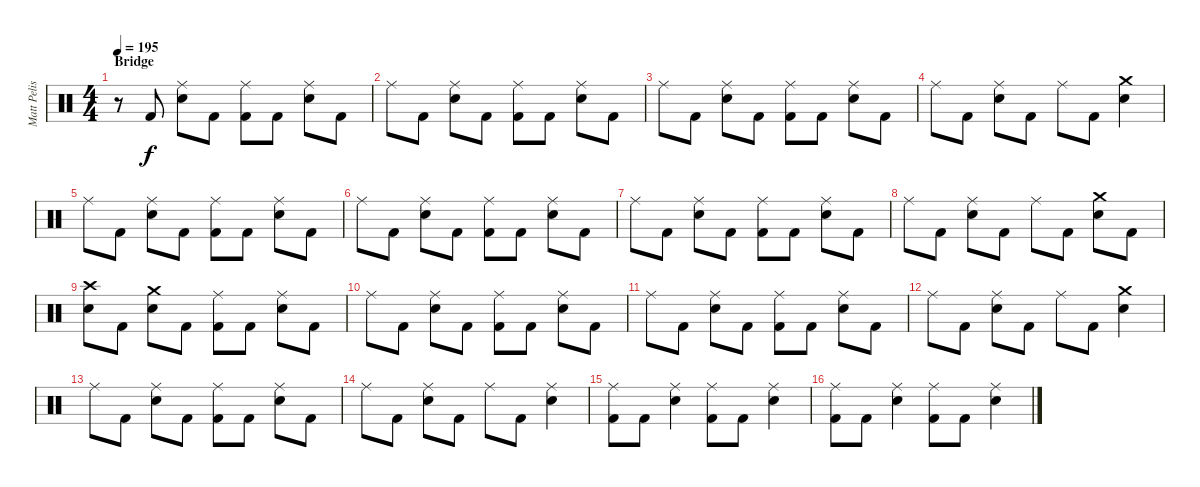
\track ("Matt Pelissier" "Matt Pelis") {instrument percussion}
\staff {score}
\articulation defaults
\ts (4 4)
\section ("" "Bridge")
\tempo 195
\clef neutral
\ks c
r.8{dy f} "Kick (hit) 2".8 ("Ride (middle)" "Electric Snare (hit)").8 "Kick (hit) 2".8 ("Ride (middle)" "Kick (hit) 2").8 "Kick (hit) 2".8 ("Ride (middle)" "Electric Snare (hit)").8 "Kick (hit) 2".8 |
"Ride (middle)".8 "Kick (hit) 2".8 ("Ride (middle)" "Electric Snare (hit)").8 "Kick (hit) 2".8 ("Ride (middle)" "Kick (hit) 2").8 "Kick (hit) 2".8 ("Ride (middle)" "Electric Snare (hit)").8 "Kick (hit) 2".8 |
"Ride (middle)".8 "Kick (hit) 2".8 ("Ride (middle)" "Electric Snare (hit)").8 "Kick (hit) 2".8 ("Ride (middle)" "Kick (hit) 2").8 "Kick (hit) 2".8 ("Ride (middle)" "Electric Snare (hit)").8 "Kick (hit) 2".8 |
"Ride (middle)".8 "Kick (hit) 2".8 ("Ride (middle)" "Electric Snare (hit)").8 "Kick (hit) 2".8 "Ride (middle)".8 "Kick (hit) 2".8 ("Crash medium (hit)" "Electric Snare (hit)").4 |
"Ride (middle)".8 "Kick (hit) 2".8 ("Ride (middle)" "Electric Snare (hit)").8 "Kick (hit) 2".8 ("Ride (middle)" "Kick (hit) 2").8 "Kick (hit) 2".8 ("Ride (middle)" "Electric Snare (hit)").8 "Kick (hit) 2".8 |
"Ride (middle)".8 "Kick (hit) 2".8 ("Ride (middle)" "Electric Snare (hit)").8 "Kick (hit) 2".8 ("Ride (middle)" "Kick (hit) 2").8 "Kick (hit) 2".8 ("Ride (middle)" "Electric Snare (hit)").8 "Kick (hit) 2".8 |
"Ride (middle)".8 "Kick (hit) 2".8 ("Ride (middle)" "Electric Snare (hit)").8 "Kick (hit) 2".8 ("Ride (middle)" "Kick (hit) 2").8 "Kick (hit) 2".8 ("Ride (middle)" "Electric Snare (hit)").8 "Kick (hit) 2".8 |
"Ride (middle)".8 "Kick (hit) 2".8 ("Ride (middle)" "Electric Snare (hit)").8 "Kick (hit) 2".8 "Ride (middle)".8 "Kick (hit) 2".8 ("Crash medium (hit)" "Electric Snare (hit)").8 "Kick (hit) 2".8 |
("Crash high (hit)" "Electric Snare (hit)").8 "Kick (hit) 2".8 ("Crash medium (hit)" "Electric Snare (hit)").8 "Kick (hit) 2".8 ("Ride (middle)" "Kick (hit) 2").8 "Kick (hit) 2".8 ("Ride (middle)" "Electric Snare (hit)").8 "Kick (hit) 2".8 |
"Ride (middle)".8 "Kick (hit) 2".8 ("Ride (middle)" "Electric Snare (hit)").8 "Kick (hit) 2".8 ("Ride (middle)" "Kick (hit) 2").8 "Kick (hit) 2".8 ("Ride (middle)" "Electric Snare (hit)").8 "Kick (hit) 2".8 |
"Ride (middle)".8 "Kick (hit) 2".8 ("Ride (middle)" "Electric Snare (hit)").8 "Kick (hit) 2".8 ("Ride (middle)" "Kick (hit) 2").8 "Kick (hit) 2".8 ("Ride (middle)" "Electric Snare (hit)").8 "Kick (hit) 2".8 |
"Ride (middle)".8 "Kick (hit) 2".8 ("Ride (middle)" "Electric Snare (hit)").8 "Kick (hit) 2".8 "Ride (middle)".8 "Kick (hit) 2".8 ("Crash medium (hit)" "Electric Snare (hit)").4 |
"Ride (middle)".8 "Kick (hit) 2".8 ("Ride (middle)" "Electric Snare (hit)").8 "Kick (hit) 2".8 ("Ride (middle)" "Kick (hit) 2").8 "Kick (hit) 2".8 ("Ride (middle)" "Electric Snare (hit)").8 "Kick (hit) 2".8 |
"Ride (middle)".8 "Kick (hit) 2".8 ("Ride (middle)" "Electric Snare (hit)").8 "Kick (hit) 2".8 "Ride (middle)".8 "Kick (hit) 2".8 ("Ride (middle)" "Electric Snare (hit)").4 |
("Ride (middle)" "Kick (hit) 2").8 "Kick (hit) 2".8 ("Ride (middle)" "Electric Snare (hit)").4 ("Ride (middle)" "Kick (hit) 2").8 "Kick (hit) 2".8 ("Ride (middle)" "Electric Snare (hit)").4 |
("Ride (middle)" "Kick (hit) 2").8 "Kick (hit) 2".8 ("Ride (middle)" "Electric Snare (hit)").4 ("Ride (middle)" "Kick (hit) 2").8 "Kick (hit) 2".8 ("Ride (middle)" "Electric Snare (hit)").4
